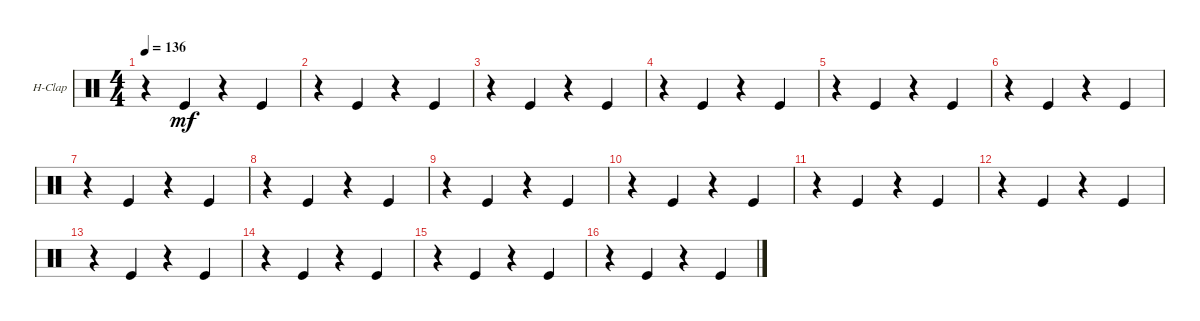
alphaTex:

\defaultSystemsLayout 4
\bracketExtendMode groupsimilarinstruments
\firstSystemTrackNameOrientation horizontal
\otherSystemsTrackNameOrientation horizontal
\track ("Hand Clap" "H-Clap") {instrument percussion}
\staff {score}
\articulation defaults
\ts (4 4)
\tempo 136
\clef neutral
\scale
0.333333
\ks c
r.4{dy mf} "Kick (hit)".4 r.4 "Kick (hit)".4 |
\scale
0.333333 r.4 "Kick (hit)".4 r.4 "Kick (hit)".4 |
\scale
0.333333 r.4 "Kick (hit)".4 r.4 "Kick (hit)".4 |
\scale
0.333333 r.4 "Kick (hit)".4 r.4 "Kick (hit)".4 |
\scale
0.333333 r.4 "Kick (hit)".4 r.4 "Kick (hit)".4 |
\scale
0.333333 r.4 "Kick (hit)".4 r.4 "Kick (hit)".4 |
\scale
0.333333 r.4 "Kick (hit)".4 r.4 "Kick (hit)".4 |
\scale
0.333333 r.4 "Kick (hit)".4 r.4 "Kick (hit)".4 |
\scale
0.333333 r.4 "Kick (hit)".4 r.4 "Kick (hit)".4 |
\scale
0.333333 r.4 "Kick (hit)".4 r.4 "Kick (hit)".4 |
\scale
0.333333 r.4 "Kick (hit)".4 r.4 "Kick (hit)".4 |
\scale
0.333333 r.4 "Kick (hit)".4 r.4 "Kick (hit)".4 |
\scale
0.333333 r.4 "Kick (hit)".4 r.4 "Kick (hit)".4 |
\scale
0.333333 r.4 "Kick (hit)".4 r.4 "Kick (hit)".4 |
\scale
0.333333 r.4 "Kick (hit)".4 r.4 "Kick (hit)".4 |
\scale
0.333333 r.4 "Kick (hit)".4 r.4 "Kick (hit)".4
